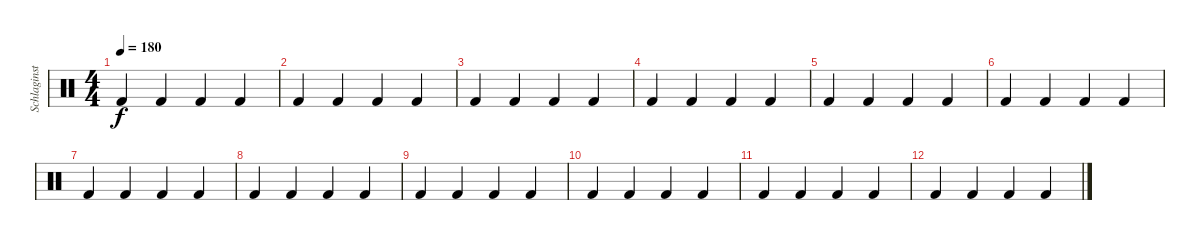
\track ("Schlaginstrumente - Auswahl" "Schlaginst") {instrument percussion}
\staff {score}
\articulation defaults
\ts (4 4)
\tempo 180
\clef neutral
\ks c "Kick (hit) 2".4{dy f} "Kick (hit) 2".4 "Kick (hit) 2".4 "Kick (hit) 2".4
|
"Kick (hit) 2".4 "Kick (hit) 2".4 "Kick (hit) 2".4 "Kick (hit) 2".4 |
"Kick (hit) 2".4 "Kick (hit) 2".4 "Kick (hit) 2".4 "Kick (hit) 2".4 |
"Kick (hit) 2".4 "Kick (hit) 2".4 "Kick (hit) 2".4 "Kick (hit) 2".4 |
"Kick (hit) 2".4 "Kick (hit) 2".4 "Kick (hit) 2".4 "Kick (hit) 2".4 |
"Kick (hit) 2".4 "Kick (hit) 2".4 "Kick (hit) 2".4 "Kick (hit) 2".4 |
"Kick (hit) 2".4 "Kick (hit) 2".4 "Kick (hit) 2".4 "Kick (hit) 2".4 |
"Kick (hit) 2".4 "Kick (hit) 2".4 "Kick (hit) 2".4 "Kick (hit) 2".4 |
"Kick (hit) 2".4 "Kick (hit) 2".4 "Kick (hit) 2".4 "Kick (hit) 2".4 |
"Kick (hit) 2".4 "Kick (hit) 2".4 "Kick (hit) 2".4 "Kick (hit) 2".4 |
"Kick (hit) 2".4 "Kick (hit) 2".4 "Kick (hit) 2".4 "Kick (hit) 2".4 |
"Kick (hit) 2".4 "Kick (hit) 2".4 "Kick (hit) 2".4 "Kick (hit) 2".4
